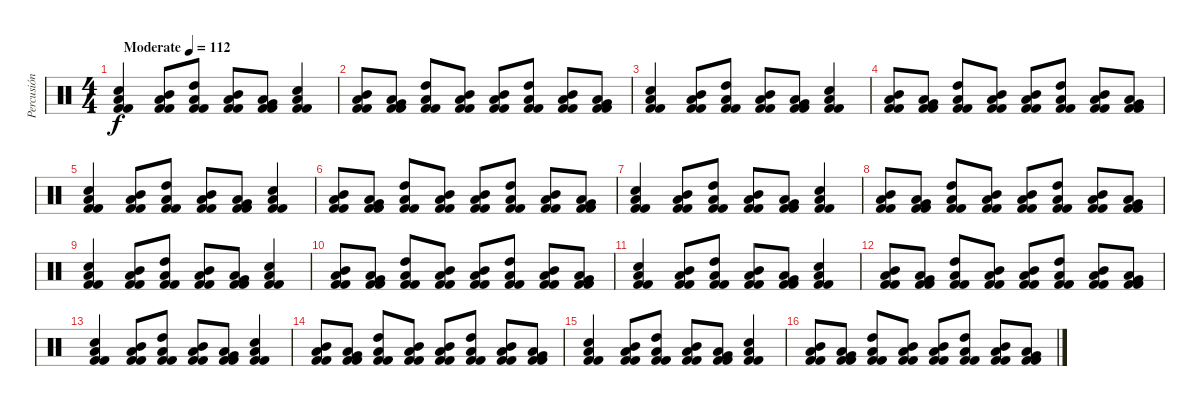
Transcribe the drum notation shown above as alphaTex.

\track ("Percusión" "Percusión") {instrument percussion}
\staff {score}
\articulation defaults
\ts (4 4)
\tempo (112 "Moderate")
\clef neutral
\ks c
("Kick (hit) 2" "Electric Snare (hit)" "Low Tom (hit)" "Kick (hit) 2").4{dy f} ("Kick (hit) 2" "Mid Tom (hit)" "Low Tom (hit)" "Kick (hit) 2").8 ("Kick (hit) 2" "High Tom (hit)" "Low Tom (hit)" "Kick (hit) 2").8 ("Kick (hit) 2" "Mid Tom (hit)" "Low Tom (hit)" "Kick (hit) 2").8 ("Kick (hit) 2" "Low Tom (hit)" "Very Low Tom (hit)" "Kick (hit) 2").8 ("Kick (hit) 2" "Electric Snare (hit)" "Low Tom (hit)" "Kick (hit) 2").4 |
("Kick (hit) 2" "Low Tom (hit)" "Mid Tom (hit)" "Kick (hit) 2").8 ("Kick (hit) 2" "Very Low Tom (hit)" "Low Tom (hit)" "Kick (hit) 2").8 ("Kick (hit) 2" "High Tom (hit)" "Low Tom (hit)" "Kick (hit) 2").8 ("Kick (hit) 2" "Low Tom (hit)" "Mid Tom (hit)" "Kick (hit) 2").8 ("Kick (hit) 2" "Low Tom (hit)" "Mid Tom (hit)" "Kick (hit) 2").8 ("Kick (hit) 2" "High Tom (hit)" "Low Tom (hit)" "Kick (hit) 2").8 ("Kick (hit) 2" "Low Tom (hit)" "Mid Tom (hit)" "Kick (hit) 2").8 ("Kick (hit) 2" "Very Low Tom (hit)" "Low Tom (hit)" "Kick (hit) 2").8 |
("Kick (hit) 2" "Electric Snare (hit)" "Low Tom (hit)" "Kick (hit) 2").4 ("Kick (hit) 2" "Mid Tom (hit)" "Low Tom (hit)" "Kick (hit) 2").8 ("Kick (hit) 2" "High Tom (hit)" "Low Tom (hit)" "Kick (hit) 2").8 ("Kick (hit) 2" "Mid Tom (hit)" "Low Tom (hit)" "Kick (hit) 2").8 ("Kick (hit) 2" "Low Tom (hit)" "Very Low Tom (hit)" "Kick (hit) 2").8 ("Kick (hit) 2" "Electric Snare (hit)" "Low Tom (hit)" "Kick (hit) 2").4 |
("Kick (hit) 2" "Low Tom (hit)" "Mid Tom (hit)" "Kick (hit) 2").8 ("Kick (hit) 2" "Very Low Tom (hit)" "Low Tom (hit)" "Kick (hit) 2").8 ("Kick (hit) 2" "High Tom (hit)" "Low Tom (hit)" "Kick (hit) 2").8 ("Kick (hit) 2" "Low Tom (hit)" "Mid Tom (hit)" "Kick (hit) 2").8 ("Kick (hit) 2" "Low Tom (hit)" "Mid Tom (hit)" "Kick (hit) 2").8 ("Kick (hit) 2" "High Tom (hit)" "Low Tom (hit)" "Kick (hit) 2").8 ("Kick (hit) 2" "Low Tom (hit)" "Mid Tom (hit)" "Kick (hit) 2").8 ("Kick (hit) 2" "Very Low Tom (hit)" "Low Tom (hit)" "Kick (hit) 2").8 |
("Kick (hit) 2" "Electric Snare (hit)" "Low Tom (hit)" "Kick (hit) 2").4 ("Kick (hit) 2" "Mid Tom (hit)" "Low Tom (hit)" "Kick (hit) 2").8 ("Kick (hit) 2" "High Tom (hit)" "Low Tom (hit)" "Kick (hit) 2").8 ("Kick (hit) 2" "Mid Tom (hit)" "Low Tom (hit)" "Kick (hit) 2").8 ("Kick (hit) 2" "Low Tom (hit)" "Very Low Tom (hit)" "Kick (hit) 2").8 ("Kick (hit) 2" "Electric Snare (hit)" "Low Tom (hit)" "Kick (hit) 2").4 |
("Kick (hit) 2" "Low Tom (hit)" "Mid Tom (hit)" "Kick (hit) 2").8 ("Kick (hit) 2" "Very Low Tom (hit)" "Low Tom (hit)" "Kick (hit) 2").8 ("Kick (hit) 2" "High Tom (hit)" "Low Tom (hit)" "Kick (hit) 2").8 ("Kick (hit) 2" "Low Tom (hit)" "Mid Tom (hit)" "Kick (hit) 2").8 ("Kick (hit) 2" "Low Tom (hit)" "Mid Tom (hit)" "Kick (hit) 2").8 ("Kick (hit) 2" "High Tom (hit)" "Low Tom (hit)" "Kick (hit) 2").8 ("Kick (hit) 2" "Low Tom (hit)" "Mid Tom (hit)" "Kick (hit) 2").8 ("Kick (hit) 2" "Very Low Tom (hit)" "Low Tom (hit)" "Kick (hit) 2").8 |
("Kick (hit) 2" "Electric Snare (hit)" "Low Tom (hit)" "Kick (hit) 2").4 ("Kick (hit) 2" "Mid Tom (hit)" "Low Tom (hit)" "Kick (hit) 2").8 ("Kick (hit) 2" "High Tom (hit)" "Low Tom (hit)" "Kick (hit) 2").8 ("Kick (hit) 2" "Mid Tom (hit)" "Low Tom (hit)" "Kick (hit) 2").8 ("Kick (hit) 2" "Low Tom (hit)" "Very Low Tom (hit)" "Kick (hit) 2").8 ("Kick (hit) 2" "Electric Snare (hit)" "Low Tom (hit)" "Kick (hit) 2").4 |
("Kick (hit) 2" "Low Tom (hit)" "Mid Tom (hit)" "Kick (hit) 2").8 ("Kick (hit) 2" "Very Low Tom (hit)" "Low Tom (hit)" "Kick (hit) 2").8 ("Kick (hit) 2" "High Tom (hit)" "Low Tom (hit)" "Kick (hit) 2").8 ("Kick (hit) 2" "Low Tom (hit)" "Mid Tom (hit)" "Kick (hit) 2").8 ("Kick (hit) 2" "Low Tom (hit)" "Mid Tom (hit)" "Kick (hit) 2").8 ("Kick (hit) 2" "High Tom (hit)" "Low Tom (hit)" "Kick (hit) 2").8 ("Kick (hit) 2" "Low Tom (hit)" "Mid Tom (hit)" "Kick (hit) 2").8 ("Kick (hit) 2" "Very Low Tom (hit)" "Low Tom (hit)" "Kick (hit) 2").8 |
("Kick (hit) 2" "Electric Snare (hit)" "Low Tom (hit)" "Kick (hit) 2").4 ("Kick (hit) 2" "Mid Tom (hit)" "Low Tom (hit)" "Kick (hit) 2").8 ("Kick (hit) 2" "High Tom (hit)" "Low Tom (hit)" "Kick (hit) 2").8 ("Kick (hit) 2" "Mid Tom (hit)" "Low Tom (hit)" "Kick (hit) 2").8 ("Kick (hit) 2" "Low Tom (hit)" "Very Low Tom (hit)" "Kick (hit) 2").8 ("Kick (hit) 2" "Electric Snare (hit)" "Low Tom (hit)" "Kick (hit) 2").4 |
("Kick (hit) 2" "Low Tom (hit)" "Mid Tom (hit)" "Kick (hit) 2").8 ("Kick (hit) 2" "Very Low Tom (hit)" "Low Tom (hit)" "Kick (hit) 2").8 ("Kick (hit) 2" "High Tom (hit)" "Low Tom (hit)" "Kick (hit) 2").8 ("Kick (hit) 2" "Low Tom (hit)" "Mid Tom (hit)" "Kick (hit) 2").8 ("Kick (hit) 2" "Low Tom (hit)" "Mid Tom (hit)" "Kick (hit) 2").8 ("Kick (hit) 2" "High Tom (hit)" "Low Tom (hit)" "Kick (hit) 2").8 ("Kick (hit) 2" "Low Tom (hit)" "Mid Tom (hit)" "Kick (hit) 2").8 ("Kick (hit) 2" "Very Low Tom (hit)" "Low Tom (hit)" "Kick (hit) 2").8 |
("Kick (hit) 2" "Electric Snare (hit)" "Low Tom (hit)" "Kick (hit) 2").4 ("Kick (hit) 2" "Mid Tom (hit)" "Low Tom (hit)" "Kick (hit) 2").8 ("Kick (hit) 2" "High Tom (hit)" "Low Tom (hit)" "Kick (hit) 2").8 ("Kick (hit) 2" "Mid Tom (hit)" "Low Tom (hit)" "Kick (hit) 2").8 ("Kick (hit) 2" "Low Tom (hit)" "Very Low Tom (hit)" "Kick (hit) 2").8 ("Kick (hit) 2" "Electric Snare (hit)" "Low Tom (hit)" "Kick (hit) 2").4 |
("Kick (hit) 2" "Low Tom (hit)" "Mid Tom (hit)" "Kick (hit) 2").8 ("Kick (hit) 2" "Very Low Tom (hit)" "Low Tom (hit)" "Kick (hit) 2").8 ("Kick (hit) 2" "High Tom (hit)" "Low Tom (hit)" "Kick (hit) 2").8 ("Kick (hit) 2" "Low Tom (hit)" "Mid Tom (hit)" "Kick (hit) 2").8 ("Kick (hit) 2" "Low Tom (hit)" "Mid Tom (hit)" "Kick (hit) 2").8 ("Kick (hit) 2" "High Tom (hit)" "Low Tom (hit)" "Kick (hit) 2").8 ("Kick (hit) 2" "Low Tom (hit)" "Mid Tom (hit)" "Kick (hit) 2").8 ("Kick (hit) 2" "Very Low Tom (hit)" "Low Tom (hit)" "Kick (hit) 2").8 |
("Kick (hit) 2" "Electric Snare (hit)" "Low Tom (hit)" "Kick (hit) 2").4 ("Kick (hit) 2" "Mid Tom (hit)" "Low Tom (hit)" "Kick (hit) 2").8 ("Kick (hit) 2" "High Tom (hit)" "Low Tom (hit)" "Kick (hit) 2").8 ("Kick (hit) 2" "Mid Tom (hit)" "Low Tom (hit)" "Kick (hit) 2").8 ("Kick (hit) 2" "Low Tom (hit)" "Very Low Tom (hit)" "Kick (hit) 2").8 ("Kick (hit) 2" "Electric Snare (hit)" "Low Tom (hit)" "Kick (hit) 2").4 |
("Kick (hit) 2" "Low Tom (hit)" "Mid Tom (hit)" "Kick (hit) 2").8 ("Kick (hit) 2" "Very Low Tom (hit)" "Low Tom (hit)" "Kick (hit) 2").8 ("Kick (hit) 2" "High Tom (hit)" "Low Tom (hit)" "Kick (hit) 2").8 ("Kick (hit) 2" "Low Tom (hit)" "Mid Tom (hit)" "Kick (hit) 2").8 ("Kick (hit) 2" "Low Tom (hit)" "Mid Tom (hit)" "Kick (hit) 2").8 ("Kick (hit) 2" "High Tom (hit)" "Low Tom (hit)" "Kick (hit) 2").8 ("Kick (hit) 2" "Low Tom (hit)" "Mid Tom (hit)" "Kick (hit) 2").8 ("Kick (hit) 2" "Very Low Tom (hit)" "Low Tom (hit)" "Kick (hit) 2").8 |
("Kick (hit) 2" "Electric Snare (hit)" "Low Tom (hit)" "Kick (hit) 2").4 ("Kick (hit) 2" "Mid Tom (hit)" "Low Tom (hit)" "Kick (hit) 2").8 ("Kick (hit) 2" "High Tom (hit)" "Low Tom (hit)" "Kick (hit) 2").8 ("Kick (hit) 2" "Mid Tom (hit)" "Low Tom (hit)" "Kick (hit) 2").8 ("Kick (hit) 2" "Low Tom (hit)" "Very Low Tom (hit)" "Kick (hit) 2").8 ("Kick (hit) 2" "Electric Snare (hit)" "Low Tom (hit)" "Kick (hit) 2").4 |
("Kick (hit) 2" "Low Tom (hit)" "Mid Tom (hit)" "Kick (hit) 2").8 ("Kick (hit) 2" "Very Low Tom (hit)" "Low Tom (hit)" "Kick (hit) 2").8 ("Kick (hit) 2" "High Tom (hit)" "Low Tom (hit)" "Kick (hit) 2").8 ("Kick (hit) 2" "Low Tom (hit)" "Mid Tom (hit)" "Kick (hit) 2").8 ("Kick (hit) 2" "Low Tom (hit)" "Mid Tom (hit)" "Kick (hit) 2").8 ("Kick (hit) 2" "High Tom (hit)" "Low Tom (hit)" "Kick (hit) 2").8 ("Kick (hit) 2" "Low Tom (hit)" "Mid Tom (hit)" "Kick (hit) 2").8 ("Kick (hit) 2" "Very Low Tom (hit)" "Low Tom (hit)" "Kick (hit) 2").8
